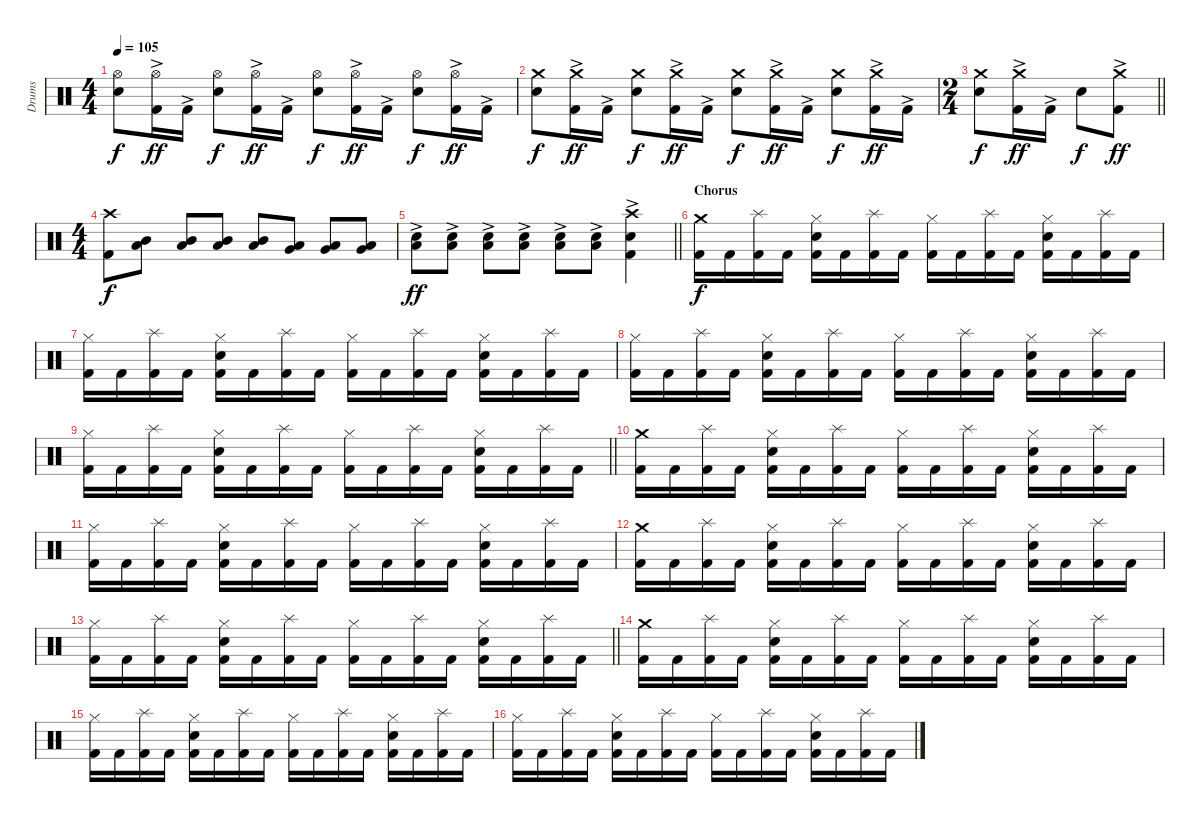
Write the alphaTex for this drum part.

\track ("Drums" "Drums") {instrument percussion}
\staff {score}
\articulation defaults
\ts (4 4)
\tempo 105
\clef neutral
\ks c
("Snare (hit) 2" "Hi-Hat (open)").8{dy f} ("Kick (hit) 2"{ac} "Hi-Hat (open)").16{dy ff} "Kick (hit) 2"{ac}.16 ("Snare (hit) 2" "Hi-Hat (open)").8{dy f} ("Kick (hit) 2"{ac} "Hi-Hat (open)").16{dy ff} "Kick (hit) 2"{ac}.16 ("Snare (hit) 2" "Hi-Hat (open)").8{dy f} ("Kick (hit) 2"{ac} "Hi-Hat (open)").16{dy ff} "Kick (hit) 2"{ac}.16 ("Snare (hit) 2" "Hi-Hat (open)").8{dy f} ("Kick (hit) 2"{ac} "Hi-Hat (open)").16{dy ff} "Kick (hit) 2"{ac}.16 |
("Snare (hit) 2" "Crash medium (hit)").8{dy f} ("Kick (hit) 2"{ac} "Crash medium (hit)").16{dy ff} "Kick (hit) 2"{ac}.16 ("Snare (hit) 2" "Crash medium (hit)").8{dy f} ("Kick (hit) 2"{ac} "Crash medium (hit)").16{dy ff} "Kick (hit) 2"{ac}.16 ("Snare (hit) 2" "Crash medium (hit)").8{dy f} ("Kick (hit) 2"{ac} "Crash medium (hit)").16{dy ff} "Kick (hit) 2"{ac}.16 ("Snare (hit) 2" "Crash medium (hit)").8{dy f} ("Kick (hit) 2"{ac} "Crash medium (hit)").16{dy ff} "Kick (hit) 2"{ac}.16 |
\ts (2 4)
\barLineRight lightlight
("Snare (hit) 2" "Crash medium (hit)").8{dy f} ("Kick (hit) 2"{ac} "Crash medium (hit)").16{dy ff} "Kick (hit) 2"{ac}.16 "Snare (hit) 2".8{dy f} ("Kick (hit) 2"{ac} "Crash medium (hit)").8{dy ff} |
\ts (4 4)
\section ("" "")
("Kick (hit) 2" "Crash high (hit)").8{dy f} ("Low Tom (hit)" "Mid Tom (hit)").8 ("Low Tom (hit)" "Mid Tom (hit)").8 ("Low Tom (hit)" "Mid Tom (hit)").8 ("Low Tom (hit)" "Mid Tom (hit)").8 ("Very Low Tom (hit)" "Low Tom (hit)").8 ("Very Low Tom (hit)" "Low Tom (hit)").8 ("Very Low Tom (hit)" "Low Tom (hit)").8 |
\barLineRight lightlight
("Snare (hit) 2" "Low Tom (hit)"{ac}).8{dy ff} ("Snare (hit) 2" "Low Tom (hit)"{ac}).8 ("Snare (hit) 2" "Low Tom (hit)"{ac}).8 ("Snare (hit) 2" "Low Tom (hit)"{ac}).8 ("Snare (hit) 2" "Low Tom (hit)"{ac}).8 ("Snare (hit) 2" "Low Tom (hit)"{ac}).8 ("Kick (hit) 2"{ac} "Snare (hit) 2" "Crash high (hit)").4 |
\section ("" "Chorus")
("Kick (hit) 2" "Crash medium (hit)").16{dy f} "Kick (hit) 2".16 ("Kick (hit) 2" "Splash (hit)").16 "Kick (hit) 2".16 ("Kick (hit) 2" "Snare (hit) 2" "Hi-Hat (closed)").16 "Kick (hit) 2".16 ("Kick (hit) 2" "Splash (hit)").16 "Kick (hit) 2".16 ("Kick (hit) 2" "Hi-Hat (closed)").16 "Kick (hit) 2".16 ("Kick (hit) 2" "Splash (hit)").16 "Kick (hit) 2".16 ("Kick (hit) 2" "Snare (hit) 2" "Hi-Hat (closed)").16 "Kick (hit) 2".16 ("Kick (hit) 2" "Splash (hit)").16 "Kick (hit) 2".16 |
("Kick (hit) 2" "Hi-Hat (closed)").16 "Kick (hit) 2".16 ("Kick (hit) 2" "Splash (hit)").16 "Kick (hit) 2".16 ("Kick (hit) 2" "Snare (hit) 2" "Hi-Hat (closed)").16 "Kick (hit) 2".16 ("Kick (hit) 2" "Splash (hit)").16 "Kick (hit) 2".16 ("Kick (hit) 2" "Hi-Hat (closed)").16 "Kick (hit) 2".16 ("Kick (hit) 2" "Splash (hit)").16 "Kick (hit) 2".16 ("Kick (hit) 2" "Snare (hit) 2" "Hi-Hat (closed)").16 "Kick (hit) 2".16 ("Kick (hit) 2" "Splash (hit)").16 "Kick (hit) 2".16 |
("Kick (hit) 2" "Hi-Hat (closed)").16 "Kick (hit) 2".16 ("Kick (hit) 2" "Splash (hit)").16 "Kick (hit) 2".16 ("Kick (hit) 2" "Snare (hit) 2" "Hi-Hat (closed)").16 "Kick (hit) 2".16 ("Kick (hit) 2" "Splash (hit)").16 "Kick (hit) 2".16 ("Kick (hit) 2" "Hi-Hat (closed)").16 "Kick (hit) 2".16 ("Kick (hit) 2" "Splash (hit)").16 "Kick (hit) 2".16 ("Kick (hit) 2" "Snare (hit) 2" "Hi-Hat (closed)").16 "Kick (hit) 2".16 ("Kick (hit) 2" "Splash (hit)").16 "Kick (hit) 2".16 |
\barLineRight lightlight
("Kick (hit) 2" "Hi-Hat (closed)").16 "Kick (hit) 2".16 ("Kick (hit) 2" "Splash (hit)").16 "Kick (hit) 2".16 ("Kick (hit) 2" "Snare (hit) 2" "Hi-Hat (closed)").16 "Kick (hit) 2".16 ("Kick (hit) 2" "Splash (hit)").16 "Kick (hit) 2".16 ("Kick (hit) 2" "Hi-Hat (closed)").16 "Kick (hit) 2".16 ("Kick (hit) 2" "Splash (hit)").16 "Kick (hit) 2".16 ("Kick (hit) 2" "Snare (hit) 2" "Hi-Hat (closed)").16 "Kick (hit) 2".16 ("Kick (hit) 2" "Splash (hit)").16 "Kick (hit) 2".16 |
\section ("" "")
("Kick (hit) 2" "Crash medium (hit)").16 "Kick (hit) 2".16 ("Kick (hit) 2" "Splash (hit)").16 "Kick (hit) 2".16 ("Kick (hit) 2" "Snare (hit) 2" "Hi-Hat (closed)").16 "Kick (hit) 2".16 ("Kick (hit) 2" "Splash (hit)").16 "Kick (hit) 2".16 ("Kick (hit) 2" "Hi-Hat (closed)").16 "Kick (hit) 2".16 ("Kick (hit) 2" "Splash (hit)").16 "Kick (hit) 2".16 ("Kick (hit) 2" "Snare (hit) 2" "Hi-Hat (closed)").16 "Kick (hit) 2".16 ("Kick (hit) 2" "Splash (hit)").16 "Kick (hit) 2".16 |
("Kick (hit) 2" "Hi-Hat (closed)").16 "Kick (hit) 2".16 ("Kick (hit) 2" "Splash (hit)").16 "Kick (hit) 2".16 ("Kick (hit) 2" "Snare (hit) 2" "Hi-Hat (closed)").16 "Kick (hit) 2".16 ("Kick (hit) 2" "Splash (hit)").16 "Kick (hit) 2".16 ("Kick (hit) 2" "Hi-Hat (closed)").16 "Kick (hit) 2".16 ("Kick (hit) 2" "Splash (hit)").16 "Kick (hit) 2".16 ("Kick (hit) 2" "Snare (hit) 2" "Hi-Hat (closed)").16 "Kick (hit) 2".16 ("Kick (hit) 2" "Splash (hit)").16 "Kick (hit) 2".16 |
("Kick (hit) 2" "Crash medium (hit)").16 "Kick (hit) 2".16 ("Kick (hit) 2" "Splash (hit)").16 "Kick (hit) 2".16 ("Kick (hit) 2" "Snare (hit) 2" "Hi-Hat (closed)").16 "Kick (hit) 2".16 ("Kick (hit) 2" "Splash (hit)").16 "Kick (hit) 2".16 ("Kick (hit) 2" "Hi-Hat (closed)").16 "Kick (hit) 2".16 ("Kick (hit) 2" "Splash (hit)").16 "Kick (hit) 2".16 ("Kick (hit) 2" "Snare (hit) 2" "Hi-Hat (closed)").16 "Kick (hit) 2".16 ("Kick (hit) 2" "Splash (hit)").16 "Kick (hit) 2".16 |
\barLineRight lightlight
("Kick (hit) 2" "Hi-Hat (closed)").16 "Kick (hit) 2".16 ("Kick (hit) 2" "Splash (hit)").16 "Kick (hit) 2".16 ("Kick (hit) 2" "Snare (hit) 2" "Hi-Hat (closed)").16 "Kick (hit) 2".16 ("Kick (hit) 2" "Splash (hit)").16 "Kick (hit) 2".16 ("Kick (hit) 2" "Hi-Hat (closed)").16 "Kick (hit) 2".16 ("Kick (hit) 2" "Splash (hit)").16 "Kick (hit) 2".16 ("Kick (hit) 2" "Snare (hit) 2" "Hi-Hat (closed)").16 "Kick (hit) 2".16 ("Kick (hit) 2" "Splash (hit)").16 "Kick (hit) 2".16 |
\section ("" "")
("Kick (hit) 2" "Crash medium (hit)").16 "Kick (hit) 2".16 ("Kick (hit) 2" "Splash (hit)").16 "Kick (hit) 2".16 ("Kick (hit) 2" "Snare (hit) 2" "Hi-Hat (closed)").16 "Kick (hit) 2".16 ("Kick (hit) 2" "Splash (hit)").16 "Kick (hit) 2".16 ("Kick (hit) 2" "Hi-Hat (closed)").16 "Kick (hit) 2".16 ("Kick (hit) 2" "Splash (hit)").16 "Kick (hit) 2".16 ("Kick (hit) 2" "Snare (hit) 2" "Hi-Hat (closed)").16 "Kick (hit) 2".16 ("Kick (hit) 2" "Splash (hit)").16 "Kick (hit) 2".16 |
("Kick (hit) 2" "Hi-Hat (closed)").16 "Kick (hit) 2".16 ("Kick (hit) 2" "Splash (hit)").16 "Kick (hit) 2".16 ("Kick (hit) 2" "Snare (hit) 2" "Hi-Hat (closed)").16 "Kick (hit) 2".16 ("Kick (hit) 2" "Splash (hit)").16 "Kick (hit) 2".16 ("Kick (hit) 2" "Hi-Hat (closed)").16 "Kick (hit) 2".16 ("Kick (hit) 2" "Splash (hit)").16 "Kick (hit) 2".16 ("Kick (hit) 2" "Snare (hit) 2" "Hi-Hat (closed)").16 "Kick (hit) 2".16 ("Kick (hit) 2" "Splash (hit)").16 "Kick (hit) 2".16 |
("Kick (hit) 2" "Hi-Hat (closed)").16 "Kick (hit) 2".16 ("Kick (hit) 2" "Splash (hit)").16 "Kick (hit) 2".16 ("Kick (hit) 2" "Snare (hit) 2" "Hi-Hat (closed)").16 "Kick (hit) 2".16 ("Kick (hit) 2" "Splash (hit)").16 "Kick (hit) 2".16 ("Kick (hit) 2" "Hi-Hat (closed)").16 "Kick (hit) 2".16 ("Kick (hit) 2" "Splash (hit)").16 "Kick (hit) 2".16 ("Kick (hit) 2" "Snare (hit) 2" "Hi-Hat (closed)").16 "Kick (hit) 2".16 ("Kick (hit) 2" "Splash (hit)").16 "Kick (hit) 2".16
